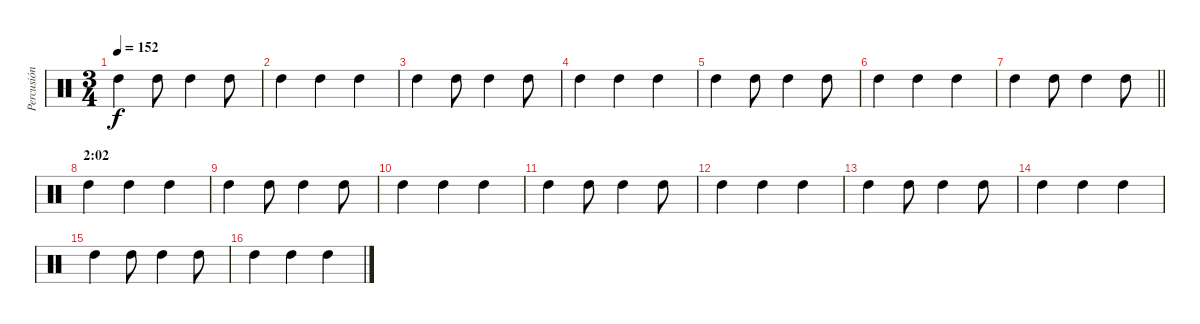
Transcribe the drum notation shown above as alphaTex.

\track ("Percusión" "Percusión") {instrument percussion}
\staff {score}
\articulation defaults
\ts (3 4)
\tempo 152
\clef neutral
\ks c "High Tom (hit)".4{dy f} "High Tom (hit)".8 "High Tom (hit)".4 "High Tom (hit)".8
|
"High Tom (hit)".4 "High Tom (hit)".4 "High Tom (hit)".4 |
"High Tom (hit)".4 "High Tom (hit)".8 "High Tom (hit)".4 "High Tom (hit)".8 |
"High Tom (hit)".4 "High Tom (hit)".4 "High Tom (hit)".4 |
"High Tom (hit)".4 "High Tom (hit)".8 "High Tom (hit)".4 "High Tom (hit)".8 |
"High Tom (hit)".4 "High Tom (hit)".4 "High Tom (hit)".4 |
\barLineRight lightlight "High Tom (hit)".4 "High Tom (hit)".8 "High Tom (hit)".4 "High Tom (hit)".8
|
\section ("" "2:02")
"High Tom (hit)".4 "High Tom (hit)".4 "High Tom (hit)".4 |
"High Tom (hit)".4 "High Tom (hit)".8 "High Tom (hit)".4 "High Tom (hit)".8 |
"High Tom (hit)".4 "High Tom (hit)".4 "High Tom (hit)".4 |
"High Tom (hit)".4 "High Tom (hit)".8 "High Tom (hit)".4 "High Tom (hit)".8 |
"High Tom (hit)".4 "High Tom (hit)".4 "High Tom (hit)".4 |
"High Tom (hit)".4 "High Tom (hit)".8 "High Tom (hit)".4 "High Tom (hit)".8 |
"High Tom (hit)".4 "High Tom (hit)".4 "High Tom (hit)".4 |
"High Tom (hit)".4 "High Tom (hit)".8 "High Tom (hit)".4 "High Tom (hit)".8 |
"High Tom (hit)".4 "High Tom (hit)".4 "High Tom (hit)".4
